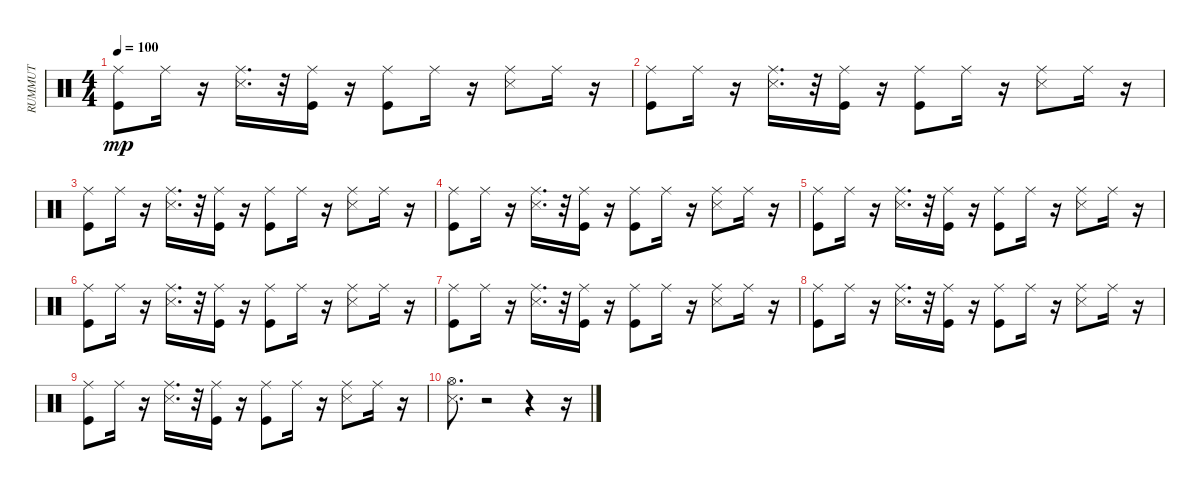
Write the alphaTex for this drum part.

\track ("RUMMUT" "RUMMUT") {instrument percussion}
\staff {score}
\articulation defaults
\ts (4 4)
\tempo 100
\clef neutral
\ks c
("Kick (hit)" "Ride (middle)").8{dy mp} "Ride (middle)".16 r.16 ("Snare (side stick) 3" "Ride (middle)").16{d} r.32 ("Ride (middle)" "Kick (hit)").16 r.16 ("Ride (middle)" "Kick (hit)").8 "Ride (middle)".16 r.16 ("Snare (side stick) 3" "Ride (middle)").8 "Ride (middle)".16 r.16 |
("Kick (hit)" "Ride (middle)").8 "Ride (middle)".16 r.16 ("Snare (side stick) 3" "Ride (middle)").16{d} r.32 ("Ride (middle)" "Kick (hit)").16 r.16 ("Ride (middle)" "Kick (hit)").8 "Ride (middle)".16 r.16 ("Snare (side stick) 3" "Ride (middle)").8 "Ride (middle)".16 r.16 |
("Kick (hit)" "Ride (middle)").8 "Ride (middle)".16 r.16 ("Snare (side stick) 3" "Ride (middle)").16{d} r.32 ("Ride (middle)" "Kick (hit)").16 r.16 ("Ride (middle)" "Kick (hit)").8 "Ride (middle)".16 r.16 ("Snare (side stick) 3" "Ride (middle)").8 "Ride (middle)".16 r.16 |
("Kick (hit)" "Ride (middle)").8 "Ride (middle)".16 r.16 ("Snare (side stick) 3" "Ride (middle)").16{d} r.32 ("Ride (middle)" "Kick (hit)").16 r.16 ("Ride (middle)" "Kick (hit)").8 "Ride (middle)".16 r.16 ("Snare (side stick) 3" "Ride (middle)").8 "Ride (middle)".16 r.16 |
("Kick (hit)" "Ride (middle)").8 "Ride (middle)".16 r.16 ("Snare (side stick) 3" "Ride (middle)").16{d} r.32 ("Ride (middle)" "Kick (hit)").16 r.16 ("Ride (middle)" "Kick (hit)").8 "Ride (middle)".16 r.16 ("Snare (side stick) 3" "Ride (middle)").8 "Ride (middle)".16 r.16 |
("Kick (hit)" "Ride (middle)").8 "Ride (middle)".16 r.16 ("Snare (side stick) 3" "Ride (middle)").16{d} r.32 ("Ride (middle)" "Kick (hit)").16 r.16 ("Ride (middle)" "Kick (hit)").8 "Ride (middle)".16 r.16 ("Snare (side stick) 3" "Ride (middle)").8 "Ride (middle)".16 r.16 |
("Kick (hit)" "Ride (middle)").8 "Ride (middle)".16 r.16 ("Snare (side stick) 3" "Ride (middle)").16{d} r.32 ("Ride (middle)" "Kick (hit)").16 r.16 ("Ride (middle)" "Kick (hit)").8 "Ride (middle)".16 r.16 ("Snare (side stick) 3" "Ride (middle)").8 "Ride (middle)".16 r.16 |
("Kick (hit)" "Ride (middle)").8 "Ride (middle)".16 r.16 ("Snare (side stick) 3" "Ride (middle)").16{d} r.32 ("Ride (middle)" "Kick (hit)").16 r.16 ("Ride (middle)" "Kick (hit)").8 "Ride (middle)".16 r.16 ("Snare (side stick) 3" "Ride (middle)").8 "Ride (middle)".16 r.16 |
("Kick (hit)" "Ride (middle)").8 "Ride (middle)".16 r.16 ("Snare (side stick) 3" "Ride (middle)").16{d} r.32 ("Ride (middle)" "Kick (hit)").16 r.16 ("Ride (middle)" "Kick (hit)").8 "Ride (middle)".16 r.16 ("Snare (side stick) 3" "Ride (middle)").8 "Ride (middle)".16 r.16 |
("Hi-Hat (open)" "Snare (side stick) 3").8{d} r.2 r.4 r.16
